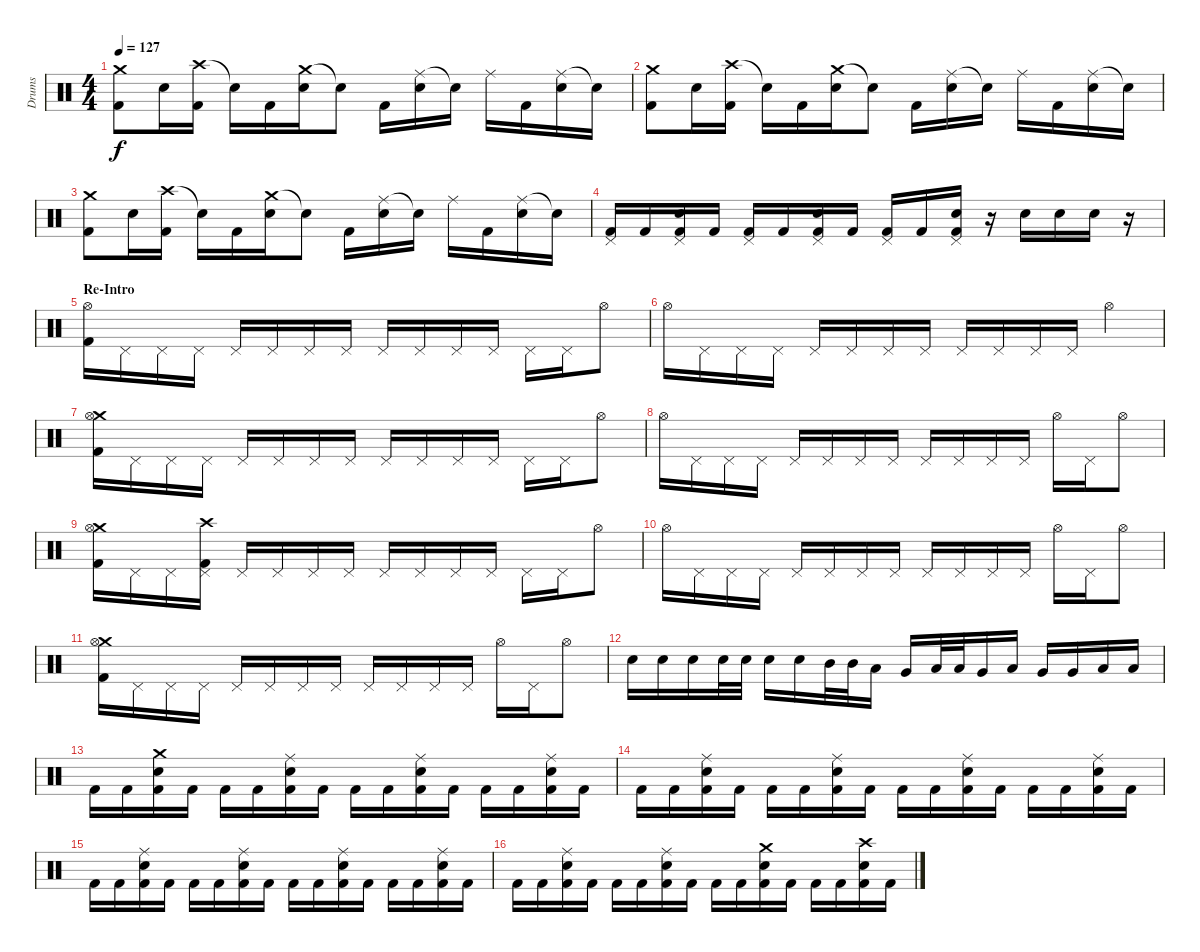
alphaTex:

\track ("Drums" "Drums") {instrument percussion}
\staff {score}
\articulation defaults
\ts (4 4)
\tempo 127
\clef neutral
\ks c
("Crash medium (hit)" "Kick (hit) 2").8{dy f} "Electric Snare (hit)".16 ("Crash high (hit)" "Kick (hit) 2").16 "Snare (hit)"{t}.16 "Kick (hit) 2".16 ("Crash medium (hit)" "Electric Snare (hit)").16 "Snare (hit)"{t}.8 "Kick (hit) 2".16 ("Ride (middle)" "Electric Snare (hit)").16 "Snare (hit)"{t}.16 "Ride (middle)".16 "Kick (hit) 2".16 ("Ride (middle)" "Electric Snare (hit)").16 "Snare (hit)"{t}.16 |
("Crash medium (hit)" "Kick (hit) 2").8 "Electric Snare (hit)".16 ("Crash high (hit)" "Kick (hit) 2").16 "Snare (hit)"{t}.16 "Kick (hit) 2".16 ("Crash medium (hit)" "Electric Snare (hit)").16 "Snare (hit)"{t}.8 "Kick (hit) 2".16 ("Ride (middle)" "Electric Snare (hit)").16 "Snare (hit)"{t}.16 "Ride (middle)".16 "Kick (hit) 2".16 ("Ride (middle)" "Electric Snare (hit)").16 "Snare (hit)"{t}.16 |
("Crash medium (hit)" "Kick (hit) 2").8 "Electric Snare (hit)".16 ("Crash high (hit)" "Kick (hit) 2").16 "Snare (hit)"{t}.16 "Kick (hit) 2".16 ("Crash medium (hit)" "Electric Snare (hit)").16 "Snare (hit)"{t}.8 "Kick (hit) 2".16 ("Ride (middle)" "Electric Snare (hit)").16 "Snare (hit)"{t}.16 "Ride (middle)".16 "Kick (hit) 2".16 ("Ride (middle)" "Electric Snare (hit)").16 "Snare (hit)"{t}.16 |
("Pedal Hi-Hat (hit)" "Kick (hit) 2").16 "Kick (hit) 2".16 ("Pedal Hi-Hat (hit)" "Electric Snare (hit)" "Kick (hit) 2").16 "Kick (hit) 2".16 ("Pedal Hi-Hat (hit)" "Kick (hit) 2").16 "Kick (hit) 2".16 ("Pedal Hi-Hat (hit)" "Electric Snare (hit)" "Kick (hit) 2").16 "Kick (hit) 2".16 ("Pedal Hi-Hat (hit)" "Kick (hit) 2").16 "Kick (hit) 2".16 ("Pedal Hi-Hat (hit)" "Electric Snare (hit)" "Kick (hit) 2").16 r.16 "Electric Snare (hit)".16 "Electric Snare (hit)".16 "Electric Snare (hit)".16 r.16 |
\section ("" "Re-Intro")
("Hi-Hat (open)" "Kick (hit) 2").16 "Pedal Hi-Hat (hit)".16 "Pedal Hi-Hat (hit)".16 "Pedal Hi-Hat (hit)".16 "Pedal Hi-Hat (hit)".16 "Pedal Hi-Hat (hit)".16 "Pedal Hi-Hat (hit)".16 "Pedal Hi-Hat (hit)".16 "Pedal Hi-Hat (hit)".16 "Pedal Hi-Hat (hit)".16 "Pedal Hi-Hat (hit)".16 "Pedal Hi-Hat (hit)".16 "Pedal Hi-Hat (hit)".16 "Pedal Hi-Hat (hit)".16 "Hi-Hat (open)".8 |
"Hi-Hat (open)".16 "Pedal Hi-Hat (hit)".16 "Pedal Hi-Hat (hit)".16 "Pedal Hi-Hat (hit)".16 "Pedal Hi-Hat (hit)".16 "Pedal Hi-Hat (hit)".16 "Pedal Hi-Hat (hit)".16 "Pedal Hi-Hat (hit)".16 "Pedal Hi-Hat (hit)".16 "Pedal Hi-Hat (hit)".16 "Pedal Hi-Hat (hit)".16 "Pedal Hi-Hat (hit)".16 "Hi-Hat (open)".4 |
("Crash medium (hit)" "Hi-Hat (open)" "Kick (hit) 2").16 "Pedal Hi-Hat (hit)".16 "Pedal Hi-Hat (hit)".16 "Pedal Hi-Hat (hit)".16 "Pedal Hi-Hat (hit)".16 "Pedal Hi-Hat (hit)".16 "Pedal Hi-Hat (hit)".16 "Pedal Hi-Hat (hit)".16 "Pedal Hi-Hat (hit)".16 "Pedal Hi-Hat (hit)".16 "Pedal Hi-Hat (hit)".16 "Pedal Hi-Hat (hit)".16 "Pedal Hi-Hat (hit)".16 "Pedal Hi-Hat (hit)".16 "Hi-Hat (open)".8 |
"Hi-Hat (open)".16 "Pedal Hi-Hat (hit)".16 "Pedal Hi-Hat (hit)".16 "Pedal Hi-Hat (hit)".16 "Pedal Hi-Hat (hit)".16 "Pedal Hi-Hat (hit)".16 "Pedal Hi-Hat (hit)".16 "Pedal Hi-Hat (hit)".16 "Pedal Hi-Hat (hit)".16 "Pedal Hi-Hat (hit)".16 "Pedal Hi-Hat (hit)".16 "Pedal Hi-Hat (hit)".16 "Hi-Hat (open)".16 "Pedal Hi-Hat (hit)".16 "Hi-Hat (open)".8 |
("Crash medium (hit)" "Hi-Hat (open)" "Kick (hit) 2").16 "Pedal Hi-Hat (hit)".16 "Pedal Hi-Hat (hit)".16 ("Crash high (hit)" "Pedal Hi-Hat (hit)" "Kick (hit) 2").16 "Pedal Hi-Hat (hit)".16 "Pedal Hi-Hat (hit)".16 "Pedal Hi-Hat (hit)".16 "Pedal Hi-Hat (hit)".16 "Pedal Hi-Hat (hit)".16 "Pedal Hi-Hat (hit)".16 "Pedal Hi-Hat (hit)".16 "Pedal Hi-Hat (hit)".16 "Pedal Hi-Hat (hit)".16 "Pedal Hi-Hat (hit)".16 "Hi-Hat (open)".8 |
"Hi-Hat (open)".16 "Pedal Hi-Hat (hit)".16 "Pedal Hi-Hat (hit)".16 "Pedal Hi-Hat (hit)".16 "Pedal Hi-Hat (hit)".16 "Pedal Hi-Hat (hit)".16 "Pedal Hi-Hat (hit)".16 "Pedal Hi-Hat (hit)".16 "Pedal Hi-Hat (hit)".16 "Pedal Hi-Hat (hit)".16 "Pedal Hi-Hat (hit)".16 "Pedal Hi-Hat (hit)".16 "Hi-Hat (open)".16 "Pedal Hi-Hat (hit)".16 "Hi-Hat (open)".8 |
("Crash medium (hit)" "Hi-Hat (open)" "Kick (hit) 2").16 "Pedal Hi-Hat (hit)".16 "Pedal Hi-Hat (hit)".16 "Pedal Hi-Hat (hit)".16 "Pedal Hi-Hat (hit)".16 "Pedal Hi-Hat (hit)".16 "Pedal Hi-Hat (hit)".16 "Pedal Hi-Hat (hit)".16 "Pedal Hi-Hat (hit)".16 "Pedal Hi-Hat (hit)".16 "Pedal Hi-Hat (hit)".16 "Pedal Hi-Hat (hit)".16 "Hi-Hat (open)".16 "Pedal Hi-Hat (hit)".16 "Hi-Hat (open)".8 |
"Electric Snare (hit)".16 "Electric Snare (hit)".16 "Electric Snare (hit)".16 "Electric Snare (hit)".32 "Electric Snare (hit)".32 "Electric Snare (hit)".16 "Electric Snare (hit)".16 "Mid Tom (hit)".32 "Mid Tom (hit)".32 "Low Tom (hit)".16 "Very Low Tom (hit)".16 "Low Tom (hit)".32 "Low Tom (hit)".32 "Very Low Tom (hit)".16 "Low Tom (hit)".16 "Very Low Tom (hit)".16 "Very Low Tom (hit)".16 "Low Floor Tom (hit)".16 "Low Floor Tom (hit)".16 |
\section ("" "")
"Kick (hit) 2".16 "Kick (hit) 2".16 ("Crash medium (hit)" "Electric Snare (hit)" "Kick (hit) 2").16 "Kick (hit) 2".16 "Kick (hit) 2".16 "Kick (hit) 2".16 ("Ride (middle)" "Electric Snare (hit)" "Kick (hit) 2").16 "Kick (hit) 2".16 "Kick (hit) 2".16 "Kick (hit) 2".16 ("Ride (middle)" "Electric Snare (hit)" "Kick (hit) 2").16 "Kick (hit) 2".16 "Kick (hit) 2".16 "Kick (hit) 2".16 ("Ride (middle)" "Electric Snare (hit)" "Kick (hit) 2").16 "Kick (hit) 2".16 |
"Kick (hit) 2".16 "Kick (hit) 2".16 ("Ride (middle)" "Electric Snare (hit)" "Kick (hit) 2").16 "Kick (hit) 2".16 "Kick (hit) 2".16 "Kick (hit) 2".16 ("Ride (middle)" "Electric Snare (hit)" "Kick (hit) 2").16 "Kick (hit) 2".16 "Kick (hit) 2".16 "Kick (hit) 2".16 ("Ride (middle)" "Electric Snare (hit)" "Kick (hit) 2").16 "Kick (hit) 2".16 "Kick (hit) 2".16 "Kick (hit) 2".16 ("Ride (middle)" "Electric Snare (hit)" "Kick (hit) 2").16 "Kick (hit) 2".16 |
"Kick (hit) 2".16 "Kick (hit) 2".16 ("Ride (middle)" "Electric Snare (hit)" "Kick (hit) 2").16 "Kick (hit) 2".16 "Kick (hit) 2".16 "Kick (hit) 2".16 ("Ride (middle)" "Electric Snare (hit)" "Kick (hit) 2").16 "Kick (hit) 2".16 "Kick (hit) 2".16 "Kick (hit) 2".16 ("Ride (middle)" "Electric Snare (hit)" "Kick (hit) 2").16 "Kick (hit) 2".16 "Kick (hit) 2".16 "Kick (hit) 2".16 ("Ride (middle)" "Electric Snare (hit)" "Kick (hit) 2").16 "Kick (hit) 2".16 |
"Kick (hit) 2".16 "Kick (hit) 2".16 ("Ride (middle)" "Electric Snare (hit)" "Kick (hit) 2").16 "Kick (hit) 2".16 "Kick (hit) 2".16 "Kick (hit) 2".16 ("Ride (middle)" "Electric Snare (hit)" "Kick (hit) 2").16 "Kick (hit) 2".16 "Kick (hit) 2".16 "Kick (hit) 2".16 ("Crash medium (hit)" "Electric Snare (hit)" "Kick (hit) 2").16 "Kick (hit) 2".16 "Kick (hit) 2".16 "Kick (hit) 2".16 ("Crash high (hit)" "Electric Snare (hit)" "Kick (hit) 2").16 "Kick (hit) 2".16
